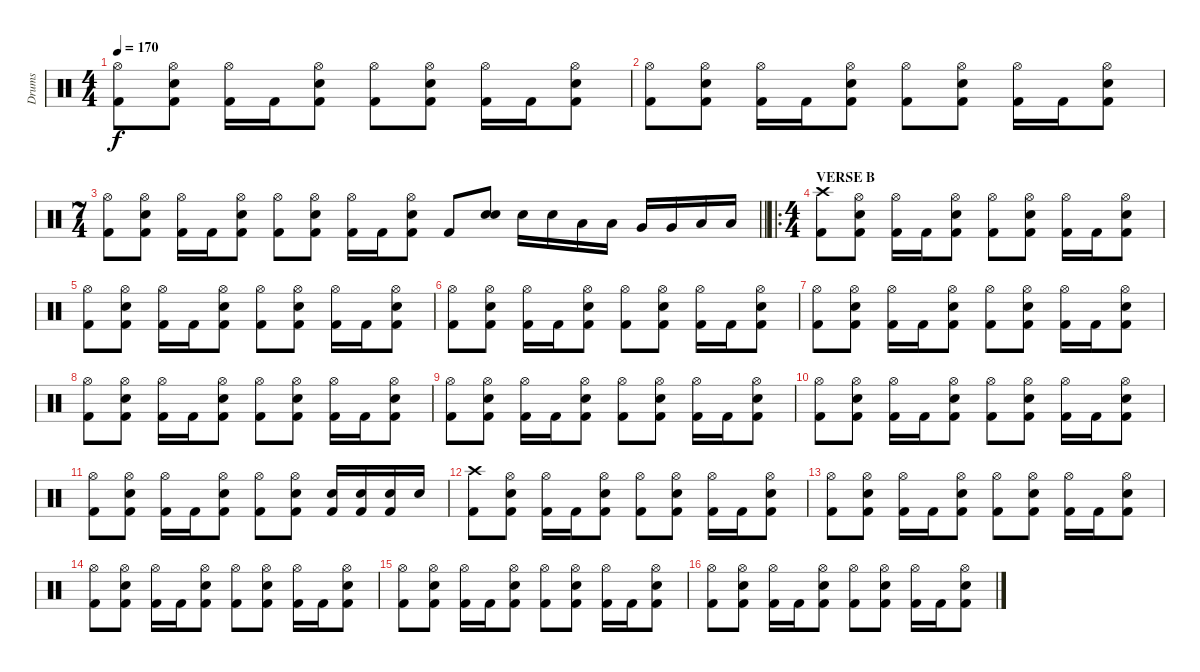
\track ("Drums" "Drums") {instrument percussion}
\staff {score}
\articulation defaults
\ts (4 4)
\tempo 170
\clef neutral
\ks c
("Hi-Hat (open)" "Kick (hit) 2").8{dy f} ("Hi-Hat (open)" "Snare (hit) 2" "Kick (hit) 2").8 ("Hi-Hat (open)" "Kick (hit) 2").16 "Kick (hit) 2".16 ("Hi-Hat (open)" "Snare (hit) 2" "Kick (hit) 2").8 ("Hi-Hat (open)" "Kick (hit) 2").8 ("Hi-Hat (open)" "Snare (hit) 2" "Kick (hit) 2").8 ("Hi-Hat (open)" "Kick (hit) 2").16 "Kick (hit) 2".16 ("Hi-Hat (open)" "Snare (hit) 2" "Kick (hit) 2").8 |
("Hi-Hat (open)" "Kick (hit) 2").8 ("Hi-Hat (open)" "Snare (hit) 2" "Kick (hit) 2").8 ("Hi-Hat (open)" "Kick (hit) 2").16 "Kick (hit) 2".16 ("Hi-Hat (open)" "Snare (hit) 2" "Kick (hit) 2").8 ("Hi-Hat (open)" "Kick (hit) 2").8 ("Hi-Hat (open)" "Snare (hit) 2" "Kick (hit) 2").8 ("Hi-Hat (open)" "Kick (hit) 2").16 "Kick (hit) 2".16 ("Hi-Hat (open)" "Snare (hit) 2" "Kick (hit) 2").8 |
\ts (7 4)
\barLineRight lightlight
("Hi-Hat (open)" "Kick (hit) 2").8 ("Hi-Hat (open)" "Snare (hit) 2" "Kick (hit) 2").8 ("Hi-Hat (open)" "Kick (hit) 2").16 "Kick (hit) 2".16 ("Hi-Hat (open)" "Snare (hit) 2" "Kick (hit) 2").8 ("Hi-Hat (open)" "Kick (hit) 2").8 ("Hi-Hat (open)" "Snare (hit) 2" "Kick (hit) 2").8 ("Hi-Hat (open)" "Kick (hit) 2").16 "Kick (hit) 2".16 ("Hi-Hat (open)" "Snare (hit) 2" "Kick (hit) 2").8 "Kick (hit) 2".8 ("Snare (hit) 2" "Snare (hit) 2").8 "Snare (hit) 2".16 "Snare (hit) 2".16 "Low Tom (hit)".16 "Low Tom (hit)".16 "Very Low Tom (hit)".16 "Very Low Tom (hit)".16 "Low Floor Tom (hit)".16 "Low Floor Tom (hit)".16 |
\ro
\ts (4 4)
\section ("" "VERSE B")
("Crash high (hit)" "Kick (hit) 2").8 ("Hi-Hat (open)" "Snare (hit) 2" "Kick (hit) 2").8 ("Hi-Hat (open)" "Kick (hit) 2").16 "Kick (hit) 2".16 ("Hi-Hat (open)" "Snare (hit) 2" "Kick (hit) 2").8 ("Hi-Hat (open)" "Kick (hit) 2").8 ("Hi-Hat (open)" "Snare (hit) 2" "Kick (hit) 2").8 ("Hi-Hat (open)" "Kick (hit) 2").16 "Kick (hit) 2".16 ("Hi-Hat (open)" "Snare (hit) 2" "Kick (hit) 2").8 |
("Hi-Hat (open)" "Kick (hit) 2").8 ("Hi-Hat (open)" "Snare (hit) 2" "Kick (hit) 2").8 ("Hi-Hat (open)" "Kick (hit) 2").16 "Kick (hit) 2".16 ("Hi-Hat (open)" "Snare (hit) 2" "Kick (hit) 2").8 ("Hi-Hat (open)" "Kick (hit) 2").8 ("Hi-Hat (open)" "Snare (hit) 2" "Kick (hit) 2").8 ("Hi-Hat (open)" "Kick (hit) 2").16 "Kick (hit) 2".16 ("Hi-Hat (open)" "Snare (hit) 2" "Kick (hit) 2").8 |
("Hi-Hat (open)" "Kick (hit) 2").8 ("Hi-Hat (open)" "Snare (hit) 2" "Kick (hit) 2").8 ("Hi-Hat (open)" "Kick (hit) 2").16 "Kick (hit) 2".16 ("Hi-Hat (open)" "Snare (hit) 2" "Kick (hit) 2").8 ("Hi-Hat (open)" "Kick (hit) 2").8 ("Hi-Hat (open)" "Snare (hit) 2" "Kick (hit) 2").8 ("Hi-Hat (open)" "Kick (hit) 2").16 "Kick (hit) 2".16 ("Hi-Hat (open)" "Snare (hit) 2" "Kick (hit) 2").8 |
("Hi-Hat (open)" "Kick (hit) 2").8 ("Hi-Hat (open)" "Snare (hit) 2" "Kick (hit) 2").8 ("Hi-Hat (open)" "Kick (hit) 2").16 "Kick (hit) 2".16 ("Hi-Hat (open)" "Snare (hit) 2" "Kick (hit) 2").8 ("Hi-Hat (open)" "Kick (hit) 2").8 ("Hi-Hat (open)" "Snare (hit) 2" "Kick (hit) 2").8 ("Hi-Hat (open)" "Kick (hit) 2").16 "Kick (hit) 2".16 ("Hi-Hat (open)" "Snare (hit) 2" "Kick (hit) 2").8 |
("Hi-Hat (open)" "Kick (hit) 2").8 ("Hi-Hat (open)" "Snare (hit) 2" "Kick (hit) 2").8 ("Hi-Hat (open)" "Kick (hit) 2").16 "Kick (hit) 2".16 ("Hi-Hat (open)" "Snare (hit) 2" "Kick (hit) 2").8 ("Hi-Hat (open)" "Kick (hit) 2").8 ("Hi-Hat (open)" "Snare (hit) 2" "Kick (hit) 2").8 ("Hi-Hat (open)" "Kick (hit) 2").16 "Kick (hit) 2".16 ("Hi-Hat (open)" "Snare (hit) 2" "Kick (hit) 2").8 |
("Hi-Hat (open)" "Kick (hit) 2").8 ("Hi-Hat (open)" "Snare (hit) 2" "Kick (hit) 2").8 ("Hi-Hat (open)" "Kick (hit) 2").16 "Kick (hit) 2".16 ("Hi-Hat (open)" "Snare (hit) 2" "Kick (hit) 2").8 ("Hi-Hat (open)" "Kick (hit) 2").8 ("Hi-Hat (open)" "Snare (hit) 2" "Kick (hit) 2").8 ("Hi-Hat (open)" "Kick (hit) 2").16 "Kick (hit) 2".16 ("Hi-Hat (open)" "Snare (hit) 2" "Kick (hit) 2").8 |
("Hi-Hat (open)" "Kick (hit) 2").8 ("Hi-Hat (open)" "Snare (hit) 2" "Kick (hit) 2").8 ("Hi-Hat (open)" "Kick (hit) 2").16 "Kick (hit) 2".16 ("Hi-Hat (open)" "Snare (hit) 2" "Kick (hit) 2").8 ("Hi-Hat (open)" "Kick (hit) 2").8 ("Hi-Hat (open)" "Snare (hit) 2" "Kick (hit) 2").8 ("Hi-Hat (open)" "Kick (hit) 2").16 "Kick (hit) 2".16 ("Hi-Hat (open)" "Snare (hit) 2" "Kick (hit) 2").8 |
("Hi-Hat (open)" "Kick (hit) 2").8 ("Hi-Hat (open)" "Snare (hit) 2" "Kick (hit) 2").8 ("Hi-Hat (open)" "Kick (hit) 2").16 "Kick (hit) 2".16 ("Hi-Hat (open)" "Snare (hit) 2" "Kick (hit) 2").8 ("Hi-Hat (open)" "Kick (hit) 2").8 ("Hi-Hat (open)" "Snare (hit) 2" "Kick (hit) 2").8 ("Snare (hit) 2" "Kick (hit) 2").16 ("Snare (hit) 2" "Kick (hit) 2").16 ("Snare (hit) 2" "Kick (hit) 2").16 "Snare (hit) 2".16 |
("Crash high (hit)" "Kick (hit) 2").8 ("Hi-Hat (open)" "Snare (hit) 2" "Kick (hit) 2").8 ("Hi-Hat (open)" "Kick (hit) 2").16 "Kick (hit) 2".16 ("Hi-Hat (open)" "Snare (hit) 2" "Kick (hit) 2").8 ("Hi-Hat (open)" "Kick (hit) 2").8 ("Hi-Hat (open)" "Snare (hit) 2" "Kick (hit) 2").8 ("Hi-Hat (open)" "Kick (hit) 2").16 "Kick (hit) 2".16 ("Hi-Hat (open)" "Snare (hit) 2" "Kick (hit) 2").8 |
("Hi-Hat (open)" "Kick (hit) 2").8 ("Hi-Hat (open)" "Snare (hit) 2" "Kick (hit) 2").8 ("Hi-Hat (open)" "Kick (hit) 2").16 "Kick (hit) 2".16 ("Hi-Hat (open)" "Snare (hit) 2" "Kick (hit) 2").8 ("Hi-Hat (open)" "Kick (hit) 2").8 ("Hi-Hat (open)" "Snare (hit) 2" "Kick (hit) 2").8 ("Hi-Hat (open)" "Kick (hit) 2").16 "Kick (hit) 2".16 ("Hi-Hat (open)" "Snare (hit) 2" "Kick (hit) 2").8 |
("Hi-Hat (open)" "Kick (hit) 2").8 ("Hi-Hat (open)" "Snare (hit) 2" "Kick (hit) 2").8 ("Hi-Hat (open)" "Kick (hit) 2").16 "Kick (hit) 2".16 ("Hi-Hat (open)" "Snare (hit) 2" "Kick (hit) 2").8 ("Hi-Hat (open)" "Kick (hit) 2").8 ("Hi-Hat (open)" "Snare (hit) 2" "Kick (hit) 2").8 ("Hi-Hat (open)" "Kick (hit) 2").16 "Kick (hit) 2".16 ("Hi-Hat (open)" "Snare (hit) 2" "Kick (hit) 2").8 |
("Hi-Hat (open)" "Kick (hit) 2").8 ("Hi-Hat (open)" "Snare (hit) 2" "Kick (hit) 2").8 ("Hi-Hat (open)" "Kick (hit) 2").16 "Kick (hit) 2".16 ("Hi-Hat (open)" "Snare (hit) 2" "Kick (hit) 2").8 ("Hi-Hat (open)" "Kick (hit) 2").8 ("Hi-Hat (open)" "Snare (hit) 2" "Kick (hit) 2").8 ("Hi-Hat (open)" "Kick (hit) 2").16 "Kick (hit) 2".16 ("Hi-Hat (open)" "Snare (hit) 2" "Kick (hit) 2").8 |
("Hi-Hat (open)" "Kick (hit) 2").8 ("Hi-Hat (open)" "Snare (hit) 2" "Kick (hit) 2").8 ("Hi-Hat (open)" "Kick (hit) 2").16 "Kick (hit) 2".16 ("Hi-Hat (open)" "Snare (hit) 2" "Kick (hit) 2").8 ("Hi-Hat (open)" "Kick (hit) 2").8 ("Hi-Hat (open)" "Snare (hit) 2" "Kick (hit) 2").8 ("Hi-Hat (open)" "Kick (hit) 2").16 "Kick (hit) 2".16 ("Hi-Hat (open)" "Snare (hit) 2" "Kick (hit) 2").8
